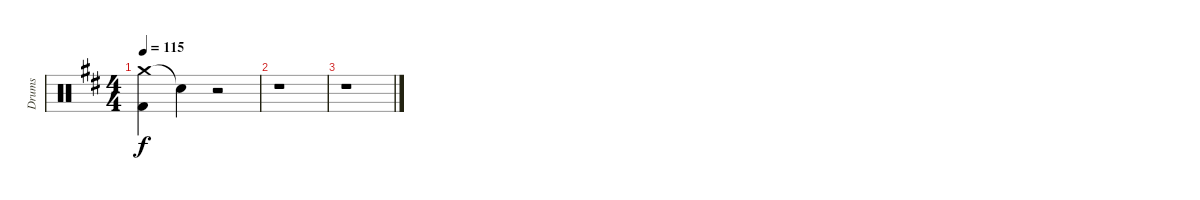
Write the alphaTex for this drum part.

\track ("Drums" "Drums") {instrument percussion}
\staff {score}
\articulation defaults
\ts (4 4)
\tempo 115
\clef neutral
\ks d
("Crash medium (hit)" "Kick (hit) 2").4{dy f} "Snare (hit)"{t}.4 r.2 |
r.1 |
r.1
